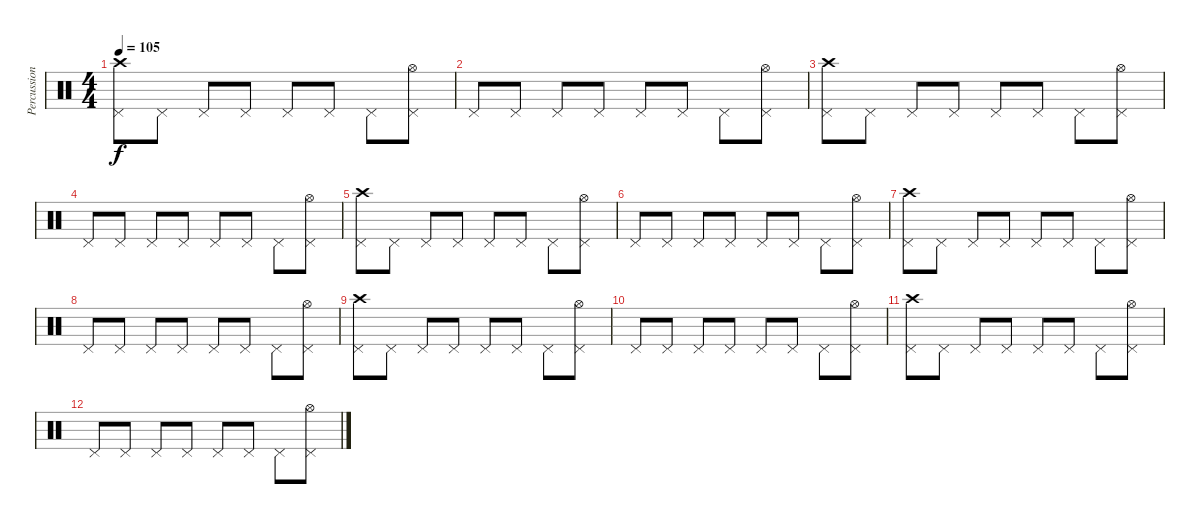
\track ("Percussion" "Percussion") {instrument percussion}
\staff {score}
\articulation defaults
\ts (4 4)
\tempo 105
\clef neutral
\ks c
("Pedal Hi-Hat (hit)" "Crash high (hit)").8{dy f} "Pedal Hi-Hat (hit)".8 "Pedal Hi-Hat (hit)".8 "Pedal Hi-Hat (hit)".8 "Pedal Hi-Hat (hit)".8 "Pedal Hi-Hat (hit)".8 "Pedal Hi-Hat (hit)".8 ("Pedal Hi-Hat (hit)" "Hi-Hat (open)").8 |
"Pedal Hi-Hat (hit)".8 "Pedal Hi-Hat (hit)".8 "Pedal Hi-Hat (hit)".8 "Pedal Hi-Hat (hit)".8 "Pedal Hi-Hat (hit)".8 "Pedal Hi-Hat (hit)".8 "Pedal Hi-Hat (hit)".8 ("Pedal Hi-Hat (hit)" "Hi-Hat (open)").8 |
("Pedal Hi-Hat (hit)" "Crash high (hit)").8 "Pedal Hi-Hat (hit)".8 "Pedal Hi-Hat (hit)".8 "Pedal Hi-Hat (hit)".8 "Pedal Hi-Hat (hit)".8 "Pedal Hi-Hat (hit)".8 "Pedal Hi-Hat (hit)".8 ("Pedal Hi-Hat (hit)" "Hi-Hat (open)").8 |
"Pedal Hi-Hat (hit)".8 "Pedal Hi-Hat (hit)".8 "Pedal Hi-Hat (hit)".8 "Pedal Hi-Hat (hit)".8 "Pedal Hi-Hat (hit)".8 "Pedal Hi-Hat (hit)".8 "Pedal Hi-Hat (hit)".8 ("Pedal Hi-Hat (hit)" "Hi-Hat (open)").8 |
("Pedal Hi-Hat (hit)" "Crash high (hit)").8 "Pedal Hi-Hat (hit)".8 "Pedal Hi-Hat (hit)".8 "Pedal Hi-Hat (hit)".8 "Pedal Hi-Hat (hit)".8 "Pedal Hi-Hat (hit)".8 "Pedal Hi-Hat (hit)".8 ("Pedal Hi-Hat (hit)" "Hi-Hat (open)").8 |
"Pedal Hi-Hat (hit)".8 "Pedal Hi-Hat (hit)".8 "Pedal Hi-Hat (hit)".8 "Pedal Hi-Hat (hit)".8 "Pedal Hi-Hat (hit)".8 "Pedal Hi-Hat (hit)".8 "Pedal Hi-Hat (hit)".8 ("Pedal Hi-Hat (hit)" "Hi-Hat (open)").8 |
("Pedal Hi-Hat (hit)" "Crash high (hit)").8 "Pedal Hi-Hat (hit)".8 "Pedal Hi-Hat (hit)".8 "Pedal Hi-Hat (hit)".8 "Pedal Hi-Hat (hit)".8 "Pedal Hi-Hat (hit)".8 "Pedal Hi-Hat (hit)".8 ("Pedal Hi-Hat (hit)" "Hi-Hat (open)").8 |
"Pedal Hi-Hat (hit)".8 "Pedal Hi-Hat (hit)".8 "Pedal Hi-Hat (hit)".8 "Pedal Hi-Hat (hit)".8 "Pedal Hi-Hat (hit)".8 "Pedal Hi-Hat (hit)".8 "Pedal Hi-Hat (hit)".8 ("Pedal Hi-Hat (hit)" "Hi-Hat (open)").8 |
("Pedal Hi-Hat (hit)" "Crash high (hit)").8 "Pedal Hi-Hat (hit)".8 "Pedal Hi-Hat (hit)".8 "Pedal Hi-Hat (hit)".8 "Pedal Hi-Hat (hit)".8 "Pedal Hi-Hat (hit)".8 "Pedal Hi-Hat (hit)".8 ("Pedal Hi-Hat (hit)" "Hi-Hat (open)").8 |
"Pedal Hi-Hat (hit)".8 "Pedal Hi-Hat (hit)".8 "Pedal Hi-Hat (hit)".8 "Pedal Hi-Hat (hit)".8 "Pedal Hi-Hat (hit)".8 "Pedal Hi-Hat (hit)".8 "Pedal Hi-Hat (hit)".8 ("Pedal Hi-Hat (hit)" "Hi-Hat (open)").8 |
("Pedal Hi-Hat (hit)" "Crash high (hit)").8 "Pedal Hi-Hat (hit)".8 "Pedal Hi-Hat (hit)".8 "Pedal Hi-Hat (hit)".8 "Pedal Hi-Hat (hit)".8 "Pedal Hi-Hat (hit)".8 "Pedal Hi-Hat (hit)".8 ("Pedal Hi-Hat (hit)" "Hi-Hat (open)").8 |
"Pedal Hi-Hat (hit)".8 "Pedal Hi-Hat (hit)".8 "Pedal Hi-Hat (hit)".8 "Pedal Hi-Hat (hit)".8 "Pedal Hi-Hat (hit)".8 "Pedal Hi-Hat (hit)".8 "Pedal Hi-Hat (hit)".8 ("Pedal Hi-Hat (hit)" "Hi-Hat (open)").8
